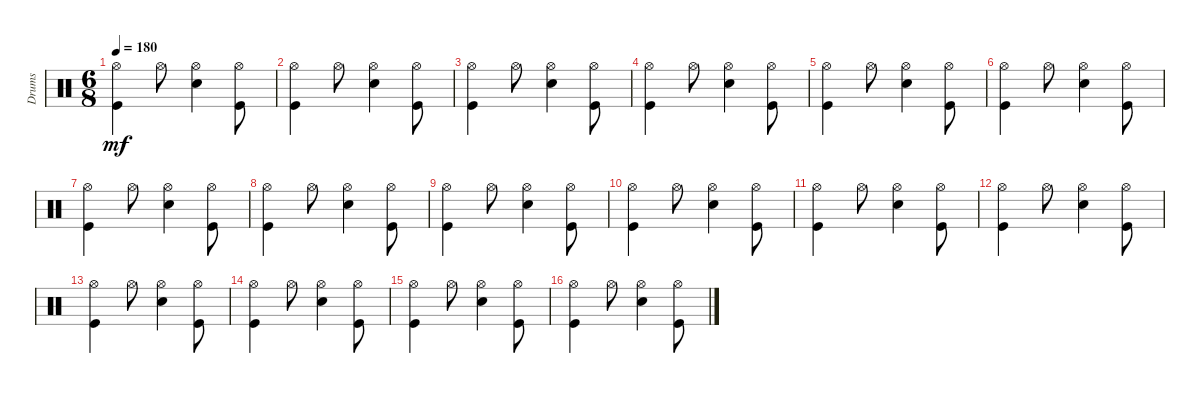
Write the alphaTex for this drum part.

\track ("Drums" "Drums") {instrument percussion}
\staff {score}
\articulation defaults
\ts (6 8)
\tempo 180
\clef neutral
\ks c
("Hi-Hat (open)" "Kick (hit)").4{dy mf} "Hi-Hat (open)".8 ("Hi-Hat (open)" "Electric Snare (hit)").4 ("Hi-Hat (open)" "Kick (hit)").8 |
("Hi-Hat (open)" "Kick (hit)").4 "Hi-Hat (open)".8 ("Hi-Hat (open)" "Electric Snare (hit)").4 ("Hi-Hat (open)" "Kick (hit)").8 |
("Hi-Hat (open)" "Kick (hit)").4 "Hi-Hat (open)".8 ("Hi-Hat (open)" "Electric Snare (hit)").4 ("Hi-Hat (open)" "Kick (hit)").8 |
("Hi-Hat (open)" "Kick (hit)").4 "Hi-Hat (open)".8 ("Hi-Hat (open)" "Electric Snare (hit)").4 ("Hi-Hat (open)" "Kick (hit)").8 |
("Hi-Hat (open)" "Kick (hit)").4 "Hi-Hat (open)".8 ("Hi-Hat (open)" "Electric Snare (hit)").4 ("Hi-Hat (open)" "Kick (hit)").8 |
("Hi-Hat (open)" "Kick (hit)").4 "Hi-Hat (open)".8 ("Hi-Hat (open)" "Electric Snare (hit)").4 ("Hi-Hat (open)" "Kick (hit)").8 |
("Hi-Hat (open)" "Kick (hit)").4 "Hi-Hat (open)".8 ("Hi-Hat (open)" "Electric Snare (hit)").4 ("Hi-Hat (open)" "Kick (hit)").8 |
("Hi-Hat (open)" "Kick (hit)").4 "Hi-Hat (open)".8 ("Hi-Hat (open)" "Electric Snare (hit)").4 ("Hi-Hat (open)" "Kick (hit)").8 |
("Hi-Hat (open)" "Kick (hit)").4 "Hi-Hat (open)".8 ("Hi-Hat (open)" "Electric Snare (hit)").4 ("Hi-Hat (open)" "Kick (hit)").8 |
("Hi-Hat (open)" "Kick (hit)").4 "Hi-Hat (open)".8 ("Hi-Hat (open)" "Electric Snare (hit)").4 ("Hi-Hat (open)" "Kick (hit)").8 |
("Hi-Hat (open)" "Kick (hit)").4 "Hi-Hat (open)".8 ("Hi-Hat (open)" "Electric Snare (hit)").4 ("Hi-Hat (open)" "Kick (hit)").8 |
("Hi-Hat (open)" "Kick (hit)").4 "Hi-Hat (open)".8 ("Hi-Hat (open)" "Electric Snare (hit)").4 ("Hi-Hat (open)" "Kick (hit)").8 |
("Hi-Hat (open)" "Kick (hit)").4 "Hi-Hat (open)".8 ("Hi-Hat (open)" "Electric Snare (hit)").4 ("Hi-Hat (open)" "Kick (hit)").8 |
("Hi-Hat (open)" "Kick (hit)").4 "Hi-Hat (open)".8 ("Hi-Hat (open)" "Electric Snare (hit)").4 ("Hi-Hat (open)" "Kick (hit)").8 |
("Hi-Hat (open)" "Kick (hit)").4 "Hi-Hat (open)".8 ("Hi-Hat (open)" "Electric Snare (hit)").4 ("Hi-Hat (open)" "Kick (hit)").8 |
("Hi-Hat (open)" "Kick (hit)").4 "Hi-Hat (open)".8 ("Hi-Hat (open)" "Electric Snare (hit)").4 ("Hi-Hat (open)" "Kick (hit)").8
